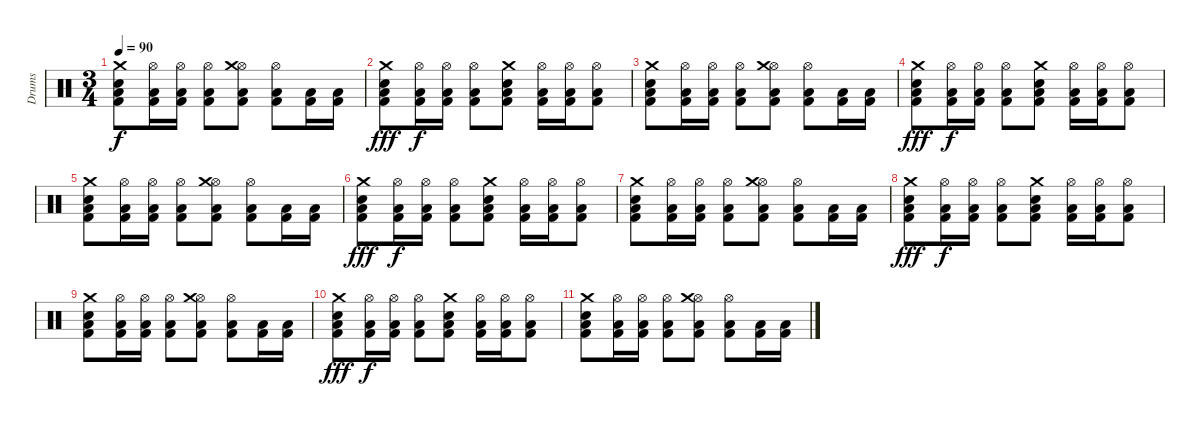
\track ("Drums" "Drums") {instrument percussion}
\staff {score}
\articulation defaults
\ts (3 4)
\tempo 90
\clef neutral
\ks c
("Kick (hit) 2" "Low Floor Tom (hit)" "Electric Snare (hit)" "Crash medium (hit)").8{dy f} ("Kick (hit) 2" "Low Floor Tom (hit)" "Hi-Hat (open)").16 ("Kick (hit) 2" "Low Floor Tom (hit)" "Hi-Hat (open)").16 ("Kick (hit) 2" "Low Floor Tom (hit)" "Hi-Hat (open)").8 ("Kick (hit) 2" "Low Floor Tom (hit)" "Hi-Hat (open)" "Crash medium (hit)").8 ("Kick (hit) 2" "Low Floor Tom (hit)" "Hi-Hat (open)").8 ("Kick (hit) 2" "Low Floor Tom (hit)").16 ("Kick (hit) 2" "Low Floor Tom (hit)").16 |
("Kick (hit) 2" "Low Floor Tom (hit)" "Electric Snare (hit)" "Crash medium (hit)").8{dy fff volume 0} ("Kick (hit) 2" "Low Floor Tom (hit)" "Hi-Hat (open)").16{dy f} ("Kick (hit) 2" "Low Floor Tom (hit)" "Hi-Hat (open)").16 ("Kick (hit) 2" "Low Floor Tom (hit)" "Hi-Hat (open)").8 ("Kick (hit) 2" "Low Floor Tom (hit)" "Electric Snare (hit)" "Crash medium (hit)").8 ("Kick (hit) 2" "Low Floor Tom (hit)" "Hi-Hat (open)").16 ("Kick (hit) 2" "Low Floor Tom (hit)" "Hi-Hat (open)").16 ("Kick (hit) 2" "Low Floor Tom (hit)" "Hi-Hat (open)").8 |
("Kick (hit) 2" "Low Floor Tom (hit)" "Electric Snare (hit)" "Crash medium (hit)").8 ("Kick (hit) 2" "Low Floor Tom (hit)" "Hi-Hat (open)").16 ("Kick (hit) 2" "Low Floor Tom (hit)" "Hi-Hat (open)").16 ("Kick (hit) 2" "Low Floor Tom (hit)" "Hi-Hat (open)").8 ("Kick (hit) 2" "Low Floor Tom (hit)" "Hi-Hat (open)" "Crash medium (hit)").8 ("Kick (hit) 2" "Low Floor Tom (hit)" "Hi-Hat (open)").8 ("Kick (hit) 2" "Low Floor Tom (hit)").16 ("Kick (hit) 2" "Low Floor Tom (hit)").16 |
("Kick (hit) 2" "Low Floor Tom (hit)" "Electric Snare (hit)" "Crash medium (hit)").8{dy fff} ("Kick (hit) 2" "Low Floor Tom (hit)" "Hi-Hat (open)").16{dy f} ("Kick (hit) 2" "Low Floor Tom (hit)" "Hi-Hat (open)").16 ("Kick (hit) 2" "Low Floor Tom (hit)" "Hi-Hat (open)").8 ("Kick (hit) 2" "Low Floor Tom (hit)" "Electric Snare (hit)" "Crash medium (hit)").8 ("Kick (hit) 2" "Low Floor Tom (hit)" "Hi-Hat (open)").16 ("Kick (hit) 2" "Low Floor Tom (hit)" "Hi-Hat (open)").16 ("Kick (hit) 2" "Low Floor Tom (hit)" "Hi-Hat (open)").8 |
("Kick (hit) 2" "Low Floor Tom (hit)" "Electric Snare (hit)" "Crash medium (hit)").8 ("Kick (hit) 2" "Low Floor Tom (hit)" "Hi-Hat (open)").16 ("Kick (hit) 2" "Low Floor Tom (hit)" "Hi-Hat (open)").16 ("Kick (hit) 2" "Low Floor Tom (hit)" "Hi-Hat (open)").8 ("Kick (hit) 2" "Low Floor Tom (hit)" "Hi-Hat (open)" "Crash medium (hit)").8 ("Kick (hit) 2" "Low Floor Tom (hit)" "Hi-Hat (open)").8 ("Kick (hit) 2" "Low Floor Tom (hit)").16 ("Kick (hit) 2" "Low Floor Tom (hit)").16 |
("Kick (hit) 2" "Low Floor Tom (hit)" "Electric Snare (hit)" "Crash medium (hit)").8{dy fff} ("Kick (hit) 2" "Low Floor Tom (hit)" "Hi-Hat (open)").16{dy f} ("Kick (hit) 2" "Low Floor Tom (hit)" "Hi-Hat (open)").16 ("Kick (hit) 2" "Low Floor Tom (hit)" "Hi-Hat (open)").8 ("Kick (hit) 2" "Low Floor Tom (hit)" "Electric Snare (hit)" "Crash medium (hit)").8 ("Kick (hit) 2" "Low Floor Tom (hit)" "Hi-Hat (open)").16 ("Kick (hit) 2" "Low Floor Tom (hit)" "Hi-Hat (open)").16 ("Kick (hit) 2" "Low Floor Tom (hit)" "Hi-Hat (open)").8 |
("Kick (hit) 2" "Low Floor Tom (hit)" "Electric Snare (hit)" "Crash medium (hit)").8 ("Kick (hit) 2" "Low Floor Tom (hit)" "Hi-Hat (open)").16 ("Kick (hit) 2" "Low Floor Tom (hit)" "Hi-Hat (open)").16 ("Kick (hit) 2" "Low Floor Tom (hit)" "Hi-Hat (open)").8 ("Kick (hit) 2" "Low Floor Tom (hit)" "Hi-Hat (open)" "Crash medium (hit)").8 ("Kick (hit) 2" "Low Floor Tom (hit)" "Hi-Hat (open)").8 ("Kick (hit) 2" "Low Floor Tom (hit)").16 ("Kick (hit) 2" "Low Floor Tom (hit)").16 |
("Kick (hit) 2" "Low Floor Tom (hit)" "Electric Snare (hit)" "Crash medium (hit)").8{dy fff} ("Kick (hit) 2" "Low Floor Tom (hit)" "Hi-Hat (open)").16{dy f} ("Kick (hit) 2" "Low Floor Tom (hit)" "Hi-Hat (open)").16 ("Kick (hit) 2" "Low Floor Tom (hit)" "Hi-Hat (open)").8 ("Kick (hit) 2" "Low Floor Tom (hit)" "Electric Snare (hit)" "Crash medium (hit)").8 ("Kick (hit) 2" "Low Floor Tom (hit)" "Hi-Hat (open)").16 ("Kick (hit) 2" "Low Floor Tom (hit)" "Hi-Hat (open)").16 ("Kick (hit) 2" "Low Floor Tom (hit)" "Hi-Hat (open)").8 |
("Kick (hit) 2" "Low Floor Tom (hit)" "Electric Snare (hit)" "Crash medium (hit)").8 ("Kick (hit) 2" "Low Floor Tom (hit)" "Hi-Hat (open)").16 ("Kick (hit) 2" "Low Floor Tom (hit)" "Hi-Hat (open)").16 ("Kick (hit) 2" "Low Floor Tom (hit)" "Hi-Hat (open)").8 ("Kick (hit) 2" "Low Floor Tom (hit)" "Hi-Hat (open)" "Crash medium (hit)").8 ("Kick (hit) 2" "Low Floor Tom (hit)" "Hi-Hat (open)").8 ("Kick (hit) 2" "Low Floor Tom (hit)").16 ("Kick (hit) 2" "Low Floor Tom (hit)").16 |
("Kick (hit) 2" "Low Floor Tom (hit)" "Electric Snare (hit)" "Crash medium (hit)").8{dy fff} ("Kick (hit) 2" "Low Floor Tom (hit)" "Hi-Hat (open)").16{dy f} ("Kick (hit) 2" "Low Floor Tom (hit)" "Hi-Hat (open)").16 ("Kick (hit) 2" "Low Floor Tom (hit)" "Hi-Hat (open)").8 ("Kick (hit) 2" "Low Floor Tom (hit)" "Electric Snare (hit)" "Crash medium (hit)").8 ("Kick (hit) 2" "Low Floor Tom (hit)" "Hi-Hat (open)").16 ("Kick (hit) 2" "Low Floor Tom (hit)" "Hi-Hat (open)").16 ("Kick (hit) 2" "Low Floor Tom (hit)" "Hi-Hat (open)").8 |
("Kick (hit) 2" "Low Floor Tom (hit)" "Electric Snare (hit)" "Crash medium (hit)").8 ("Kick (hit) 2" "Low Floor Tom (hit)" "Hi-Hat (open)").16 ("Kick (hit) 2" "Low Floor Tom (hit)" "Hi-Hat (open)").16 ("Kick (hit) 2" "Low Floor Tom (hit)" "Hi-Hat (open)").8 ("Kick (hit) 2" "Low Floor Tom (hit)" "Hi-Hat (open)" "Crash medium (hit)").8 ("Kick (hit) 2" "Low Floor Tom (hit)" "Hi-Hat (open)").8 ("Kick (hit) 2" "Low Floor Tom (hit)").16 ("Kick (hit) 2" "Low Floor Tom (hit)").16
